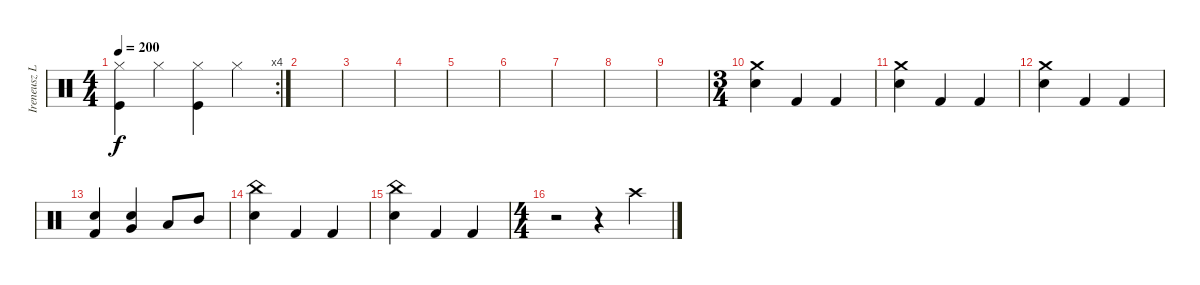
\track ("Ireneusz Loth -Drums" "Ireneusz L") {instrument percussion}
\staff {score}
\articulation defaults
\rc 4
\ts (4 4)
\tempo 200
\clef neutral
\ks c
("Hi-Hat (closed)" "Kick (hit)").4{dy f} "Hi-Hat (closed)".4 ("Hi-Hat (closed)" "Kick (hit)").4 "Hi-Hat (closed)".4 |
|
|
|
|
|
|
|
|
\ts (3 4)
("Snare (hit) 2" "Crash medium (hit)").4 "Kick (hit) 2".4 "Kick (hit) 2".4 |
("Snare (hit) 2" "Crash medium (hit)").4 "Kick (hit) 2".4 "Kick (hit) 2".4 |
("Snare (hit) 2" "Crash medium (hit)").4 "Kick (hit) 2".4 "Kick (hit) 2".4 |
("Snare (hit) 2" "Kick (hit) 2").4 ("Very Low Tom (hit)" "Snare (hit) 2").4 "Low Tom (hit)".8 "Mid Tom (hit)".8 |
("China (hit)" "Snare (hit) 2").4 "Kick (hit) 2".4 "Kick (hit) 2".4 |
("China (hit)" "Snare (hit) 2").4 "Kick (hit) 2".4 "Kick (hit) 2".4 |
\ts (4 4)
r.2 r.4 "Crash high (hit)".4
